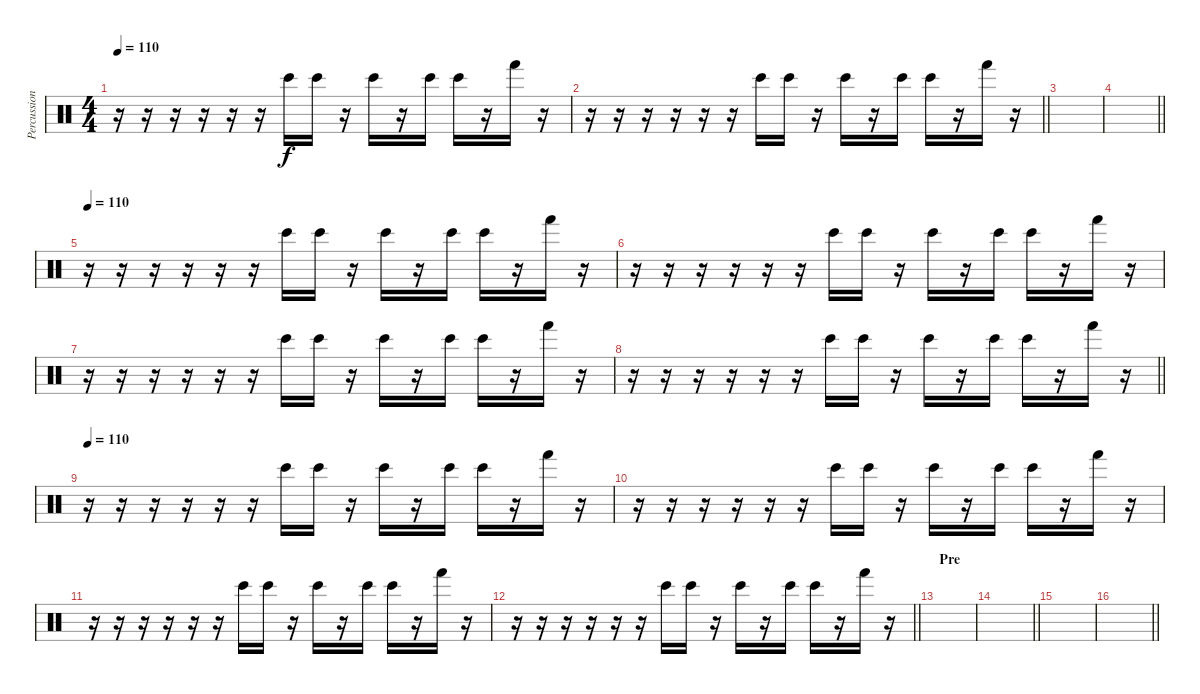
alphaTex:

\track ("Percussions" "Percussion") {instrument percussion}
\staff {score}
\articulation defaults
\ts (4 4)
\tempo 110
\clef neutral
\ks c
r.16{dy f} r.16 r.16 r.16 r.16 r.16 "Bongo High (hit)".16 "Bongo High (hit)".16 r.16 "Bongo High (hit)".16 r.16 "Bongo High (hit)".16 "Bongo High (hit)".16 r.16 "Hand (hit)".16 r.16 |
\barLineRight lightlight
r.16 r.16 r.16 r.16 r.16 r.16 "Bongo High (hit)".16 "Bongo High (hit)".16 r.16 "Bongo High (hit)".16 r.16 "Bongo High (hit)".16 "Bongo High (hit)".16 r.16 "Hand (hit)".16 r.16 |
\section ("" "")
|
\barLineRight lightlight
|
\section ("" "")
\tempo 110
r.16 r.16 r.16 r.16 r.16 r.16 "Bongo High (hit)".16 "Bongo High (hit)".16 r.16 "Bongo High (hit)".16 r.16 "Bongo High (hit)".16 "Bongo High (hit)".16 r.16 "Hand (hit)".16 r.16 |
r.16 r.16 r.16 r.16 r.16 r.16 "Bongo High (hit)".16 "Bongo High (hit)".16 r.16 "Bongo High (hit)".16 r.16 "Bongo High (hit)".16 "Bongo High (hit)".16 r.16 "Hand (hit)".16 r.16 |
r.16 r.16 r.16 r.16 r.16 r.16 "Bongo High (hit)".16 "Bongo High (hit)".16 r.16 "Bongo High (hit)".16 r.16 "Bongo High (hit)".16 "Bongo High (hit)".16 r.16 "Hand (hit)".16 r.16 |
\barLineRight lightlight
r.16 r.16 r.16 r.16 r.16 r.16 "Bongo High (hit)".16 "Bongo High (hit)".16 r.16 "Bongo High (hit)".16 r.16 "Bongo High (hit)".16 "Bongo High (hit)".16 r.16 "Hand (hit)".16 r.16 |
\tempo 110
r.16 r.16 r.16 r.16 r.16 r.16 "Bongo High (hit)".16 "Bongo High (hit)".16 r.16 "Bongo High (hit)".16 r.16 "Bongo High (hit)".16 "Bongo High (hit)".16 r.16 "Hand (hit)".16 r.16 |
r.16 r.16 r.16 r.16 r.16 r.16 "Bongo High (hit)".16 "Bongo High (hit)".16 r.16 "Bongo High (hit)".16 r.16 "Bongo High (hit)".16 "Bongo High (hit)".16 r.16 "Hand (hit)".16 r.16 |
r.16 r.16 r.16 r.16 r.16 r.16 "Bongo High (hit)".16 "Bongo High (hit)".16 r.16 "Bongo High (hit)".16 r.16 "Bongo High (hit)".16 "Bongo High (hit)".16 r.16 "Hand (hit)".16 r.16 |
\barLineRight lightlight
r.16 r.16 r.16 r.16 r.16 r.16 "Bongo High (hit)".16 "Bongo High (hit)".16 r.16 "Bongo High (hit)".16 r.16 "Bongo High (hit)".16 "Bongo High (hit)".16 r.16 "Hand (hit)".16 r.16 |
\section ("" "Pre")
|
\barLineRight lightlight
|
|
\barLineRight lightlight
